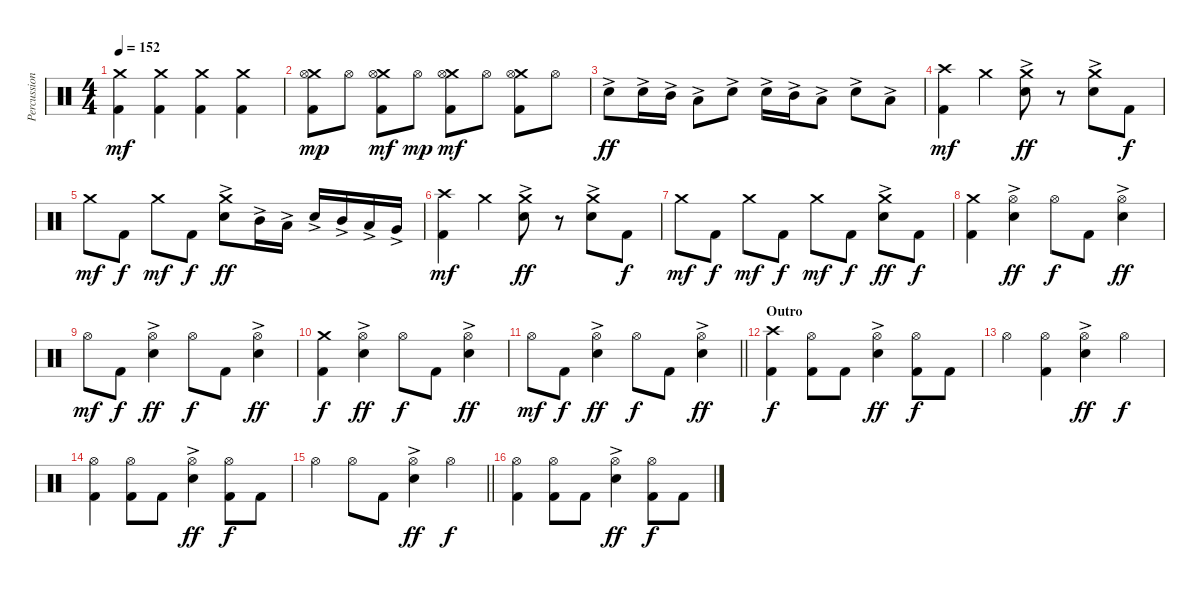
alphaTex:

\track ("Percussion" "Percussion") {instrument percussion}
\staff {score}
\articulation defaults
\ts (4 4)
\tempo 152
\clef neutral
\ks c
("Crash medium (hit)" "Kick (hit) 2").4{dy mf} ("Crash medium (hit)" "Kick (hit) 2").4 ("Crash medium (hit)" "Kick (hit) 2").4 ("Crash medium (hit)" "Kick (hit) 2").4 |
("Crash medium (hit)" "Hi-Hat (open)" "Kick (hit) 2").8{dy mp} "Hi-Hat (open)".8 ("Crash medium (hit)" "Hi-Hat (open)" "Kick (hit) 2").8{dy mf} "Hi-Hat (open)".8{dy mp} ("Crash medium (hit)" "Hi-Hat (open)" "Kick (hit) 2").8{dy mf} "Hi-Hat (open)".8 ("Crash medium (hit)" "Hi-Hat (open)" "Kick (hit) 2").8 "Hi-Hat (open)".8 |
"Electric Snare (hit)"{ac}.8{dy ff} "Electric Snare (hit)"{ac}.16 "Mid Tom (hit)"{ac}.16 "Low Tom (hit)"{ac}.8 "Electric Snare (hit)"{ac}.8 "Electric Snare (hit)"{ac}.16 "Mid Tom (hit)"{ac}.16 "Low Tom (hit)"{ac}.8 "Electric Snare (hit)"{ac}.8 "Low Tom (hit)"{ac}.8 |
("Crash high (hit)" "Kick (hit) 2").4{dy mf} "Crash medium (hit)".4 ("Crash medium (hit)" "Electric Snare (hit)"{ac}).8{dy ff} r.8 ("Crash medium (hit)" "Electric Snare (hit)"{ac}).8 "Kick (hit) 2".8{dy f} |
"Crash medium (hit)".8{dy mf} "Kick (hit) 2".8{dy f} "Crash medium (hit)".8{dy mf} "Kick (hit) 2".8{dy f} ("Crash medium (hit)" "Electric Snare (hit)"{ac}).8{dy ff} "Mid Tom (hit)"{ac}.16 "Low Tom (hit)"{ac}.16 "Electric Snare (hit)"{ac}.16 "Mid Tom (hit)"{ac}.16 "Low Tom (hit)"{ac}.16 "Very Low Tom (hit)"{ac}.16 |
("Crash high (hit)" "Kick (hit) 2").4{dy mf} "Crash medium (hit)".4 ("Crash medium (hit)" "Electric Snare (hit)"{ac}).8{dy ff} r.8 ("Crash medium (hit)" "Electric Snare (hit)"{ac}).8 "Kick (hit) 2".8{dy f} |
"Crash medium (hit)".8{dy mf} "Kick (hit) 2".8{dy f} "Crash medium (hit)".8{dy mf} "Kick (hit) 2".8{dy f} "Crash medium (hit)".8{dy mf} "Kick (hit) 2".8{dy f} ("Crash medium (hit)" "Electric Snare (hit)"{ac}).8{dy ff} "Kick (hit) 2".8{dy f} |
("Crash medium (hit)" "Kick (hit) 2").4 ("Hi-Hat (open)" "Electric Snare (hit)"{ac}).4{dy ff} "Hi-Hat (open)".8{dy f} "Kick (hit) 2".8 ("Hi-Hat (open)" "Electric Snare (hit)"{ac}).4{dy ff} |
"Hi-Hat (open)".8{dy mf} "Kick (hit) 2".8{dy f} ("Hi-Hat (open)" "Electric Snare (hit)"{ac}).4{dy ff} "Hi-Hat (open)".8{dy f} "Kick (hit) 2".8 ("Hi-Hat (open)" "Electric Snare (hit)"{ac}).4{dy ff} |
("Crash medium (hit)" "Kick (hit) 2").4{dy f} ("Hi-Hat (open)" "Electric Snare (hit)"{ac}).4{dy ff} "Hi-Hat (open)".8{dy f} "Kick (hit) 2".8 ("Hi-Hat (open)" "Electric Snare (hit)"{ac}).4{dy ff} |
\barLineRight lightlight "Hi-Hat (open)".8{dy mf} "Kick (hit) 2".8{dy f}
("Hi-Hat (open)" "Electric Snare (hit)"{ac}).4{dy ff} "Hi-Hat (open)".8{dy f} "Kick (hit) 2".8 ("Hi-Hat (open)" "Electric Snare (hit)"{ac}).4{dy ff} |
\section ("" "Outro")
("Crash high (hit)" "Kick (hit) 2").4{dy f} ("Hi-Hat (open)" "Kick (hit) 2").8 "Kick (hit) 2".8 ("Hi-Hat (open)" "Electric Snare (hit)"{ac}).4{dy ff} ("Hi-Hat (open)" "Kick (hit) 2").8{dy f} "Kick (hit) 2".8 |
"Hi-Hat (open)".4 ("Hi-Hat (open)" "Kick (hit) 2").4 ("Hi-Hat (open)" "Electric Snare (hit)"{ac}).4{dy ff} "Hi-Hat (open)".4{dy f} |
("Hi-Hat (open)" "Kick (hit) 2").4 ("Hi-Hat (open)" "Kick (hit) 2").8 "Kick (hit) 2".8 ("Hi-Hat (open)" "Electric Snare (hit)"{ac}).4{dy ff} ("Hi-Hat (open)" "Kick (hit) 2").8{dy f} "Kick (hit) 2".8 |
\barLineRight lightlight "Hi-Hat (open)".4 "Hi-Hat (open)".8 "Kick (hit) 2".8
("Hi-Hat (open)" "Electric Snare (hit)"{ac}).4{dy ff} "Hi-Hat (open)".4{dy f} |
("Hi-Hat (open)" "Kick (hit) 2").4 ("Hi-Hat (open)" "Kick (hit) 2").8 "Kick (hit) 2".8 ("Hi-Hat (open)" "Electric Snare (hit)"{ac}).4{dy ff} ("Hi-Hat (open)" "Kick (hit) 2").8{dy f} "Kick (hit) 2".8
